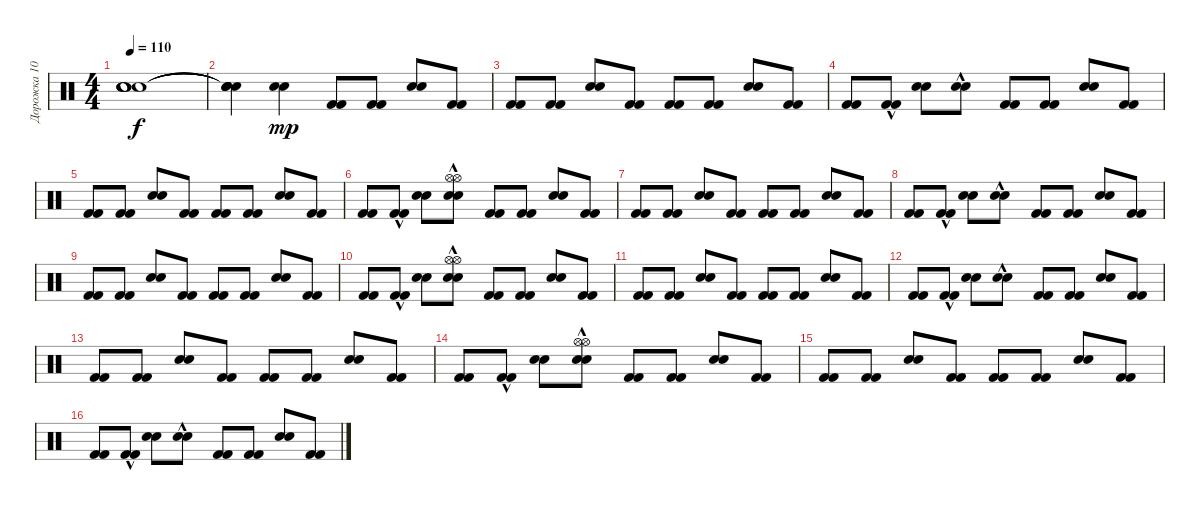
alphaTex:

\track ("Дорожка 10" "Дорожка 10") {instrument percussion}
\staff {score}
\articulation defaults
\ts (4 4)
\tempo 110
\clef neutral
\ks c
("Snare (hit)"{t} "Snare (hit)"{t} "Snare (hit)"{t} "Snare (hit)"{t}).1{dy f} |
("Snare (hit)"{t} "Snare (hit)"{t} "Snare (hit)"{t} "Snare (hit)"{t}).4 ("Snare (hit) 2" "Snare (hit) 2").4{dy mp} ("Kick (hit) 2" "Kick (hit) 2").8 ("Kick (hit) 2" "Kick (hit) 2").8 ("Snare (hit) 2" "Snare (hit) 2").8 ("Kick (hit) 2" "Kick (hit) 2").8 |
("Kick (hit) 2" "Kick (hit) 2").8 ("Kick (hit) 2" "Kick (hit) 2").8 ("Snare (hit) 2" "Snare (hit) 2").8 ("Kick (hit) 2" "Kick (hit) 2").8 ("Kick (hit) 2" "Kick (hit) 2").8 ("Kick (hit) 2" "Kick (hit) 2").8 ("Snare (hit) 2" "Snare (hit) 2").8 ("Kick (hit) 2" "Kick (hit) 2").8 |
("Kick (hit) 2" "Kick (hit) 2").8 ("Kick (hit) 2"{hac} "Kick (hit) 2"{hac}).8 ("Snare (hit) 2" "Snare (hit) 2").8 ("Snare (hit) 2"{hac} "Snare (hit) 2"{hac}).8 ("Kick (hit) 2" "Kick (hit) 2").8 ("Kick (hit) 2" "Kick (hit) 2").8 ("Snare (hit) 2" "Snare (hit) 2").8 ("Kick (hit) 2" "Kick (hit) 2").8 |
("Kick (hit) 2" "Kick (hit) 2").8 ("Kick (hit) 2" "Kick (hit) 2").8 ("Snare (hit) 2" "Snare (hit) 2").8 ("Kick (hit) 2" "Kick (hit) 2").8 ("Kick (hit) 2" "Kick (hit) 2").8 ("Kick (hit) 2" "Kick (hit) 2").8 ("Snare (hit) 2" "Snare (hit) 2").8 ("Kick (hit) 2" "Kick (hit) 2").8 |
("Kick (hit) 2" "Kick (hit) 2").8 ("Kick (hit) 2"{hac} "Kick (hit) 2"{hac}).8 ("Snare (hit) 2" "Snare (hit) 2").8 ("Snare (hit) 2"{hac} "Hi-Hat (open)" "Snare (hit) 2"{hac} "Hi-Hat (open)").8 ("Kick (hit) 2" "Kick (hit) 2").8 ("Kick (hit) 2" "Kick (hit) 2").8 ("Snare (hit) 2" "Snare (hit) 2").8 ("Kick (hit) 2" "Kick (hit) 2").8 |
("Kick (hit) 2" "Kick (hit) 2").8 ("Kick (hit) 2" "Kick (hit) 2").8 ("Snare (hit) 2" "Snare (hit) 2").8 ("Kick (hit) 2" "Kick (hit) 2").8 ("Kick (hit) 2" "Kick (hit) 2").8 ("Kick (hit) 2" "Kick (hit) 2").8 ("Snare (hit) 2" "Snare (hit) 2").8 ("Kick (hit) 2" "Kick (hit) 2").8 |
("Kick (hit) 2" "Kick (hit) 2").8 ("Kick (hit) 2"{hac} "Kick (hit) 2"{hac}).8 ("Snare (hit) 2" "Snare (hit) 2").8 ("Snare (hit) 2"{hac} "Snare (hit) 2"{hac}).8 ("Kick (hit) 2" "Kick (hit) 2").8 ("Kick (hit) 2" "Kick (hit) 2").8 ("Snare (hit) 2" "Snare (hit) 2").8 ("Kick (hit) 2" "Kick (hit) 2").8 |
("Kick (hit) 2" "Kick (hit) 2").8 ("Kick (hit) 2" "Kick (hit) 2").8 ("Snare (hit) 2" "Snare (hit) 2").8 ("Kick (hit) 2" "Kick (hit) 2").8 ("Kick (hit) 2" "Kick (hit) 2").8 ("Kick (hit) 2" "Kick (hit) 2").8 ("Snare (hit) 2" "Snare (hit) 2").8 ("Kick (hit) 2" "Kick (hit) 2").8 |
("Kick (hit) 2" "Kick (hit) 2").8 ("Kick (hit) 2"{hac} "Kick (hit) 2"{hac}).8 ("Snare (hit) 2" "Snare (hit) 2").8 ("Snare (hit) 2"{hac} "Hi-Hat (open)" "Snare (hit) 2"{hac} "Hi-Hat (open)").8 ("Kick (hit) 2" "Kick (hit) 2").8 ("Kick (hit) 2" "Kick (hit) 2").8 ("Snare (hit) 2" "Snare (hit) 2").8 ("Kick (hit) 2" "Kick (hit) 2").8 |
("Kick (hit) 2" "Kick (hit) 2").8 ("Kick (hit) 2" "Kick (hit) 2").8 ("Snare (hit) 2" "Snare (hit) 2").8 ("Kick (hit) 2" "Kick (hit) 2").8 ("Kick (hit) 2" "Kick (hit) 2").8 ("Kick (hit) 2" "Kick (hit) 2").8 ("Snare (hit) 2" "Snare (hit) 2").8 ("Kick (hit) 2" "Kick (hit) 2").8 |
("Kick (hit) 2" "Kick (hit) 2").8 ("Kick (hit) 2"{hac} "Kick (hit) 2"{hac}).8 ("Snare (hit) 2" "Snare (hit) 2").8 ("Snare (hit) 2"{hac} "Snare (hit) 2"{hac}).8 ("Kick (hit) 2" "Kick (hit) 2").8 ("Kick (hit) 2" "Kick (hit) 2").8 ("Snare (hit) 2" "Snare (hit) 2").8 ("Kick (hit) 2" "Kick (hit) 2").8 |
("Kick (hit) 2" "Kick (hit) 2").8 ("Kick (hit) 2" "Kick (hit) 2").8 ("Snare (hit) 2" "Snare (hit) 2").8 ("Kick (hit) 2" "Kick (hit) 2").8 ("Kick (hit) 2" "Kick (hit) 2").8 ("Kick (hit) 2" "Kick (hit) 2").8 ("Snare (hit) 2" "Snare (hit) 2").8 ("Kick (hit) 2" "Kick (hit) 2").8 |
("Kick (hit) 2" "Kick (hit) 2").8 ("Kick (hit) 2"{hac} "Kick (hit) 2"{hac}).8 ("Snare (hit) 2" "Snare (hit) 2").8 ("Snare (hit) 2"{hac} "Hi-Hat (open)" "Snare (hit) 2"{hac} "Hi-Hat (open)").8 ("Kick (hit) 2" "Kick (hit) 2").8 ("Kick (hit) 2" "Kick (hit) 2").8 ("Snare (hit) 2" "Snare (hit) 2").8 ("Kick (hit) 2" "Kick (hit) 2").8 |
("Kick (hit) 2" "Kick (hit) 2").8 ("Kick (hit) 2" "Kick (hit) 2").8 ("Snare (hit) 2" "Snare (hit) 2").8 ("Kick (hit) 2" "Kick (hit) 2").8 ("Kick (hit) 2" "Kick (hit) 2").8 ("Kick (hit) 2" "Kick (hit) 2").8 ("Snare (hit) 2" "Snare (hit) 2").8 ("Kick (hit) 2" "Kick (hit) 2").8 |
("Kick (hit) 2" "Kick (hit) 2").8 ("Kick (hit) 2"{hac} "Kick (hit) 2"{hac}).8 ("Snare (hit) 2" "Snare (hit) 2").8 ("Snare (hit) 2"{hac} "Snare (hit) 2"{hac}).8 ("Kick (hit) 2" "Kick (hit) 2").8 ("Kick (hit) 2" "Kick (hit) 2").8 ("Snare (hit) 2" "Snare (hit) 2").8 ("Kick (hit) 2" "Kick (hit) 2").8
